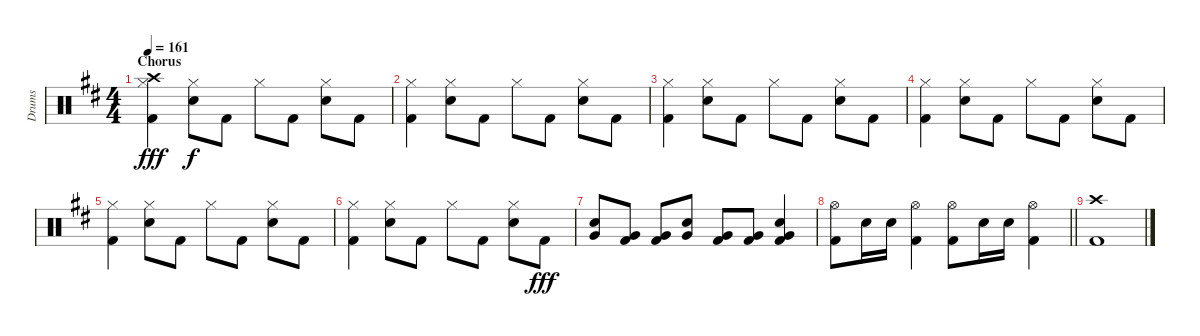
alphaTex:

\track ("Drums" "Drums") {instrument percussion}
\staff {score}
\articulation defaults
\ts (4 4)
\section ("" "Chorus")
\tempo 161
\clef neutral
\ks d
("Hi-Hat (closed)" "Crash high (hit)" "Kick (hit) 2").4{dy fff} ("Hi-Hat (closed)" "Electric Snare (hit)").8{dy f} "Kick (hit) 2".8 "Hi-Hat (closed)".8 "Kick (hit) 2".8 ("Hi-Hat (closed)" "Electric Snare (hit)").8 "Kick (hit) 2".8 |
("Hi-Hat (closed)" "Kick (hit) 2").4 ("Hi-Hat (closed)" "Electric Snare (hit)").8 "Kick (hit) 2".8 "Hi-Hat (closed)".8 "Kick (hit) 2".8 ("Hi-Hat (closed)" "Electric Snare (hit)").8 "Kick (hit) 2".8 |
("Hi-Hat (closed)" "Kick (hit) 2").4 ("Hi-Hat (closed)" "Electric Snare (hit)").8 "Kick (hit) 2".8 "Hi-Hat (closed)".8 "Kick (hit) 2".8 ("Hi-Hat (closed)" "Electric Snare (hit)").8 "Kick (hit) 2".8 |
("Hi-Hat (closed)" "Kick (hit) 2").4 ("Hi-Hat (closed)" "Electric Snare (hit)").8 "Kick (hit) 2".8 "Hi-Hat (closed)".8 "Kick (hit) 2".8 ("Hi-Hat (closed)" "Electric Snare (hit)").8 "Kick (hit) 2".8 |
("Hi-Hat (closed)" "Kick (hit) 2").4 ("Hi-Hat (closed)" "Electric Snare (hit)").8 "Kick (hit) 2".8 "Hi-Hat (closed)".8 "Kick (hit) 2".8 ("Hi-Hat (closed)" "Electric Snare (hit)").8 "Kick (hit) 2".8 |
("Hi-Hat (closed)" "Kick (hit) 2").4 ("Hi-Hat (closed)" "Electric Snare (hit)").8 "Kick (hit) 2".8 "Hi-Hat (closed)".8 "Kick (hit) 2".8 ("Hi-Hat (closed)" "Electric Snare (hit)").8 "Kick (hit) 2".8{dy fff} |
("Very Low Tom (hit)" "Electric Snare (hit)").8 ("Very Low Tom (hit)" "Kick (hit) 2").8 ("Very Low Tom (hit)" "Kick (hit) 2").8 ("Very Low Tom (hit)" "Electric Snare (hit)").8 ("Very Low Tom (hit)" "Kick (hit) 2").8 ("Very Low Tom (hit)" "Kick (hit) 2").8 ("Very Low Tom (hit)" "Electric Snare (hit)" "Kick (hit) 2").4 |
\barLineRight lightlight
("Hi-Hat (open)" "Kick (hit) 2").8 "Electric Snare (hit)".16 "Electric Snare (hit)".16 ("Hi-Hat (open)" "Kick (hit) 2").4 ("Hi-Hat (open)" "Kick (hit) 2").8 "Electric Snare (hit)".16 "Electric Snare (hit)".16 ("Hi-Hat (open)" "Kick (hit) 2").4 |
("Crash high (hit)" "Kick (hit) 2").1
